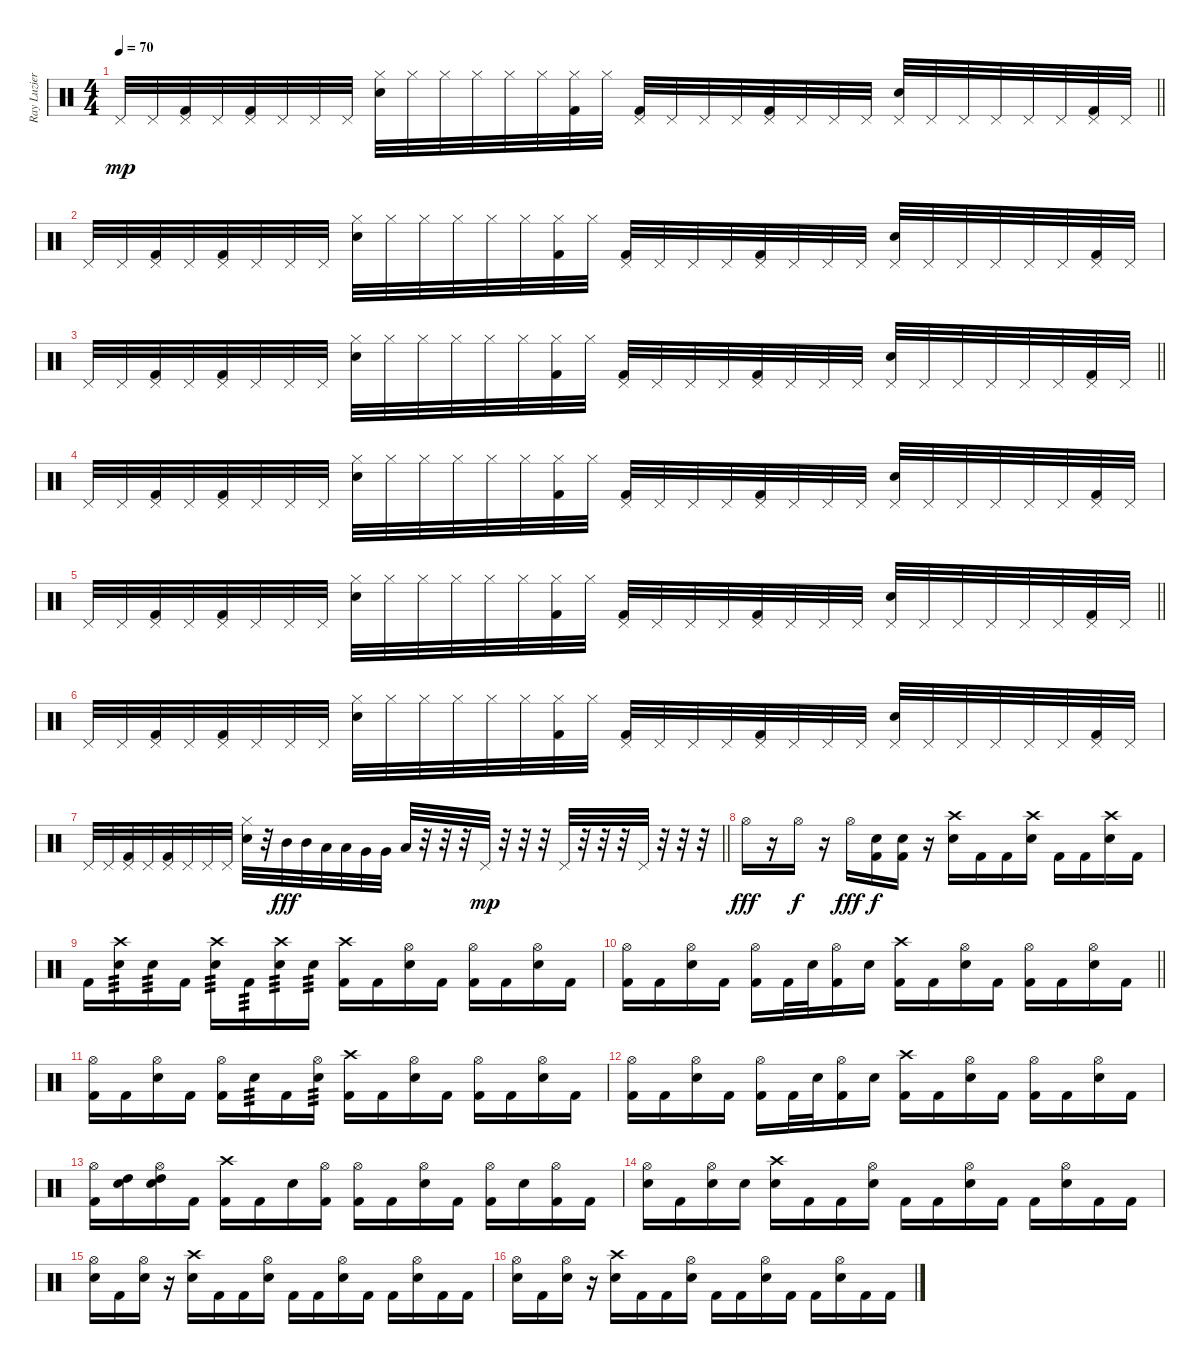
\track ("Ray Luzier (Drums)" "Ray Luzier") {instrument percussion}
\staff {score}
\articulation defaults
\ts (4 4)
\tempo 70
\clef neutral
\barLineRight lightlight
\ks c "Pedal Hi-Hat (hit)".32{dy mp} "Pedal Hi-Hat (hit)".32
("Pedal Hi-Hat (hit)" "Kick (hit) 2").32 "Pedal Hi-Hat (hit)".32 ("Pedal Hi-Hat (hit)" "Kick (hit) 2").32 "Pedal Hi-Hat (hit)".32 "Pedal Hi-Hat (hit)".32 "Pedal Hi-Hat (hit)".32 ("Hi-Hat (closed)" "Electric Snare (hit)").32 "Hi-Hat (closed)".32 "Hi-Hat (closed)".32 "Hi-Hat (closed)".32 "Hi-Hat (closed)".32 "Hi-Hat (closed)".32 ("Hi-Hat (closed)" "Kick (hit) 2").32 "Hi-Hat (closed)".32 ("Pedal Hi-Hat (hit)" "Kick (hit) 2").32 "Pedal Hi-Hat (hit)".32 "Pedal Hi-Hat (hit)".32 "Pedal Hi-Hat (hit)".32 ("Pedal Hi-Hat (hit)" "Kick (hit) 2").32 "Pedal Hi-Hat (hit)".32 "Pedal Hi-Hat (hit)".32 "Pedal Hi-Hat (hit)".32 ("Pedal Hi-Hat (hit)" "Electric Snare (hit)").32 "Pedal Hi-Hat (hit)".32 "Pedal Hi-Hat (hit)".32 "Pedal Hi-Hat (hit)".32 "Pedal Hi-Hat (hit)".32 "Pedal Hi-Hat (hit)".32 ("Pedal Hi-Hat (hit)" "Kick (hit) 2").32 "Pedal Hi-Hat (hit)".32 |
"Pedal Hi-Hat (hit)".32 "Pedal Hi-Hat (hit)".32 ("Pedal Hi-Hat (hit)" "Kick (hit) 2").32 "Pedal Hi-Hat (hit)".32 ("Pedal Hi-Hat (hit)" "Kick (hit) 2").32 "Pedal Hi-Hat (hit)".32 "Pedal Hi-Hat (hit)".32 "Pedal Hi-Hat (hit)".32 ("Hi-Hat (closed)" "Electric Snare (hit)").32 "Hi-Hat (closed)".32 "Hi-Hat (closed)".32 "Hi-Hat (closed)".32 "Hi-Hat (closed)".32 "Hi-Hat (closed)".32 ("Hi-Hat (closed)" "Kick (hit) 2").32 "Hi-Hat (closed)".32 ("Pedal Hi-Hat (hit)" "Kick (hit) 2").32 "Pedal Hi-Hat (hit)".32 "Pedal Hi-Hat (hit)".32 "Pedal Hi-Hat (hit)".32 ("Pedal Hi-Hat (hit)" "Kick (hit) 2").32 "Pedal Hi-Hat (hit)".32 "Pedal Hi-Hat (hit)".32 "Pedal Hi-Hat (hit)".32 ("Pedal Hi-Hat (hit)" "Electric Snare (hit)").32 "Pedal Hi-Hat (hit)".32 "Pedal Hi-Hat (hit)".32 "Pedal Hi-Hat (hit)".32 "Pedal Hi-Hat (hit)".32 "Pedal Hi-Hat (hit)".32 ("Pedal Hi-Hat (hit)" "Kick (hit) 2").32 "Pedal Hi-Hat (hit)".32 |
\barLineRight lightlight "Pedal Hi-Hat (hit)".32 "Pedal Hi-Hat (hit)".32
("Pedal Hi-Hat (hit)" "Kick (hit) 2").32 "Pedal Hi-Hat (hit)".32 ("Pedal Hi-Hat (hit)" "Kick (hit) 2").32 "Pedal Hi-Hat (hit)".32 "Pedal Hi-Hat (hit)".32 "Pedal Hi-Hat (hit)".32 ("Hi-Hat (closed)" "Electric Snare (hit)").32 "Hi-Hat (closed)".32 "Hi-Hat (closed)".32 "Hi-Hat (closed)".32 "Hi-Hat (closed)".32 "Hi-Hat (closed)".32 ("Hi-Hat (closed)" "Kick (hit) 2").32 "Hi-Hat (closed)".32 ("Pedal Hi-Hat (hit)" "Kick (hit) 2").32 "Pedal Hi-Hat (hit)".32 "Pedal Hi-Hat (hit)".32 "Pedal Hi-Hat (hit)".32 ("Pedal Hi-Hat (hit)" "Kick (hit) 2").32 "Pedal Hi-Hat (hit)".32 "Pedal Hi-Hat (hit)".32 "Pedal Hi-Hat (hit)".32 ("Pedal Hi-Hat (hit)" "Electric Snare (hit)").32 "Pedal Hi-Hat (hit)".32 "Pedal Hi-Hat (hit)".32 "Pedal Hi-Hat (hit)".32 "Pedal Hi-Hat (hit)".32 "Pedal Hi-Hat (hit)".32 ("Pedal Hi-Hat (hit)" "Kick (hit) 2").32 "Pedal Hi-Hat (hit)".32 |
"Pedal Hi-Hat (hit)".32 "Pedal Hi-Hat (hit)".32 ("Pedal Hi-Hat (hit)" "Kick (hit) 2").32 "Pedal Hi-Hat (hit)".32 ("Pedal Hi-Hat (hit)" "Kick (hit) 2").32 "Pedal Hi-Hat (hit)".32 "Pedal Hi-Hat (hit)".32 "Pedal Hi-Hat (hit)".32 ("Hi-Hat (closed)" "Electric Snare (hit)").32 "Hi-Hat (closed)".32 "Hi-Hat (closed)".32 "Hi-Hat (closed)".32 "Hi-Hat (closed)".32 "Hi-Hat (closed)".32 ("Hi-Hat (closed)" "Kick (hit) 2").32 "Hi-Hat (closed)".32 ("Pedal Hi-Hat (hit)" "Kick (hit) 2").32 "Pedal Hi-Hat (hit)".32 "Pedal Hi-Hat (hit)".32 "Pedal Hi-Hat (hit)".32 ("Pedal Hi-Hat (hit)" "Kick (hit) 2").32 "Pedal Hi-Hat (hit)".32 "Pedal Hi-Hat (hit)".32 "Pedal Hi-Hat (hit)".32 ("Pedal Hi-Hat (hit)" "Electric Snare (hit)").32 "Pedal Hi-Hat (hit)".32 "Pedal Hi-Hat (hit)".32 "Pedal Hi-Hat (hit)".32 "Pedal Hi-Hat (hit)".32 "Pedal Hi-Hat (hit)".32 ("Pedal Hi-Hat (hit)" "Kick (hit) 2").32 "Pedal Hi-Hat (hit)".32 |
\barLineRight lightlight "Pedal Hi-Hat (hit)".32 "Pedal Hi-Hat (hit)".32
("Pedal Hi-Hat (hit)" "Kick (hit) 2").32 "Pedal Hi-Hat (hit)".32 ("Pedal Hi-Hat (hit)" "Kick (hit) 2").32 "Pedal Hi-Hat (hit)".32 "Pedal Hi-Hat (hit)".32 "Pedal Hi-Hat (hit)".32 ("Hi-Hat (closed)" "Electric Snare (hit)").32 "Hi-Hat (closed)".32 "Hi-Hat (closed)".32 "Hi-Hat (closed)".32 "Hi-Hat (closed)".32 "Hi-Hat (closed)".32 ("Hi-Hat (closed)" "Kick (hit) 2").32 "Hi-Hat (closed)".32 ("Pedal Hi-Hat (hit)" "Kick (hit) 2").32 "Pedal Hi-Hat (hit)".32 "Pedal Hi-Hat (hit)".32 "Pedal Hi-Hat (hit)".32 ("Pedal Hi-Hat (hit)" "Kick (hit) 2").32 "Pedal Hi-Hat (hit)".32 "Pedal Hi-Hat (hit)".32 "Pedal Hi-Hat (hit)".32 ("Pedal Hi-Hat (hit)" "Electric Snare (hit)").32 "Pedal Hi-Hat (hit)".32 "Pedal Hi-Hat (hit)".32 "Pedal Hi-Hat (hit)".32 "Pedal Hi-Hat (hit)".32 "Pedal Hi-Hat (hit)".32 ("Pedal Hi-Hat (hit)" "Kick (hit) 2").32 "Pedal Hi-Hat (hit)".32 |
"Pedal Hi-Hat (hit)".32 "Pedal Hi-Hat (hit)".32 ("Pedal Hi-Hat (hit)" "Kick (hit) 2").32 "Pedal Hi-Hat (hit)".32 ("Pedal Hi-Hat (hit)" "Kick (hit) 2").32 "Pedal Hi-Hat (hit)".32 "Pedal Hi-Hat (hit)".32 "Pedal Hi-Hat (hit)".32 ("Hi-Hat (closed)" "Electric Snare (hit)").32 "Hi-Hat (closed)".32 "Hi-Hat (closed)".32 "Hi-Hat (closed)".32 "Hi-Hat (closed)".32 "Hi-Hat (closed)".32 ("Hi-Hat (closed)" "Kick (hit) 2").32 "Hi-Hat (closed)".32 ("Pedal Hi-Hat (hit)" "Kick (hit) 2").32 "Pedal Hi-Hat (hit)".32 "Pedal Hi-Hat (hit)".32 "Pedal Hi-Hat (hit)".32 ("Pedal Hi-Hat (hit)" "Kick (hit) 2").32 "Pedal Hi-Hat (hit)".32 "Pedal Hi-Hat (hit)".32 "Pedal Hi-Hat (hit)".32 ("Pedal Hi-Hat (hit)" "Electric Snare (hit)").32 "Pedal Hi-Hat (hit)".32 "Pedal Hi-Hat (hit)".32 "Pedal Hi-Hat (hit)".32 "Pedal Hi-Hat (hit)".32 "Pedal Hi-Hat (hit)".32 ("Pedal Hi-Hat (hit)" "Kick (hit) 2").32 "Pedal Hi-Hat (hit)".32 |
\barLineRight lightlight "Pedal Hi-Hat (hit)".32 "Pedal Hi-Hat (hit)".32
("Pedal Hi-Hat (hit)" "Kick (hit) 2").32 "Pedal Hi-Hat (hit)".32 ("Pedal Hi-Hat (hit)" "Kick (hit) 2").32 "Pedal Hi-Hat (hit)".32 "Pedal Hi-Hat (hit)".32 "Pedal Hi-Hat (hit)".32 ("Hi-Hat (closed)" "Electric Snare (hit)").32 r.32 "Mid Tom (hit)".32{dy fff} "Mid Tom (hit)".32 "Low Tom (hit)".32 "Low Tom (hit)".32 "Very Low Tom (hit)".32 "Very Low Tom (hit)".32 "Low Floor Tom (hit)".32 r.32 r.32 r.32 "Pedal Hi-Hat (hit)".32{dy mp} r.32 r.32 r.32 "Pedal Hi-Hat (hit)".32 r.32 r.32 r.32 "Pedal Hi-Hat (hit)".32 r.32 r.32 r.32 |
"Hi-Hat (open)".16{dy fff} r.16 "Hi-Hat (open)".16{dy f} r.16 "Hi-Hat (open)".16{dy fff} ("Electric Snare (hit)" "Kick (hit) 2").16{dy f} ("Electric Snare (hit)" "Kick (hit) 2").16 r.16 ("Crash high (hit)" "Electric Snare (hit)").16 "Kick (hit) 2".16 "Kick (hit) 2".16 ("Crash high (hit)" "Electric Snare (hit)").16 "Kick (hit) 2".16 "Kick (hit) 2".16 ("Crash high (hit)" "Electric Snare (hit)").16 "Kick (hit) 2".16 |
"Kick (hit) 2".16 ("Crash high (hit)" "Electric Snare (hit)").16{tp 3} "Electric Snare (hit)".16{tp 3} "Kick (hit) 2".16 ("Crash high (hit)" "Electric Snare (hit)").16{tp 3} "Kick (hit) 2".16{tp 3} ("Crash high (hit)" "Electric Snare (hit)").16{tp 3} "Electric Snare (hit)".16{tp 3} ("Crash high (hit)" "Kick (hit) 2").16 "Kick (hit) 2".16 ("Hi-Hat (open)" "Electric Snare (hit)").16 "Kick (hit) 2".16 ("Hi-Hat (open)" "Kick (hit) 2").16 "Kick (hit) 2".16 ("Hi-Hat (open)" "Electric Snare (hit)").16 "Kick (hit) 2".16 |
\barLineRight lightlight
("Hi-Hat (open)" "Kick (hit) 2").16 "Kick (hit) 2".16 ("Hi-Hat (open)" "Electric Snare (hit)").16 "Kick (hit) 2".16 ("Hi-Hat (open)" "Kick (hit) 2").16 "Kick (hit) 2".32 "Electric Snare (hit)".32 ("Hi-Hat (open)" "Kick (hit) 2").16 "Electric Snare (hit)".16 ("Crash high (hit)" "Kick (hit) 2").16 "Kick (hit) 2".16 ("Hi-Hat (open)" "Electric Snare (hit)").16 "Kick (hit) 2".16 ("Hi-Hat (open)" "Kick (hit) 2").16 "Kick (hit) 2".16 ("Hi-Hat (open)" "Electric Snare (hit)").16 "Kick (hit) 2".16 |
("Hi-Hat (open)" "Kick (hit) 2").16 "Kick (hit) 2".16 ("Hi-Hat (open)" "Electric Snare (hit)").16 "Kick (hit) 2".16 ("Hi-Hat (open)" "Kick (hit) 2").16 "Electric Snare (hit)".16{tp 3} "Kick (hit) 2".16 ("Hi-Hat (open)" "Electric Snare (hit)").16{tp 3} ("Crash high (hit)" "Kick (hit) 2").16 "Kick (hit) 2".16 ("Hi-Hat (open)" "Electric Snare (hit)").16 "Kick (hit) 2".16 ("Hi-Hat (open)" "Kick (hit) 2").16 "Kick (hit) 2".16 ("Hi-Hat (open)" "Electric Snare (hit)").16 "Kick (hit) 2".16 |
("Hi-Hat (open)" "Kick (hit) 2").16 "Kick (hit) 2".16 ("Hi-Hat (open)" "Electric Snare (hit)").16 "Kick (hit) 2".16 ("Hi-Hat (open)" "Kick (hit) 2").16 "Kick (hit) 2".32 "Electric Snare (hit)".32 ("Hi-Hat (open)" "Kick (hit) 2").16 "Electric Snare (hit)".16 ("Crash high (hit)" "Kick (hit) 2").16 "Kick (hit) 2".16 ("Hi-Hat (open)" "Electric Snare (hit)").16 "Kick (hit) 2".16 ("Hi-Hat (open)" "Kick (hit) 2").16 "Kick (hit) 2".16 ("Hi-Hat (open)" "Electric Snare (hit)").16 "Kick (hit) 2".16 |
("Hi-Hat (open)" "Kick (hit) 2").16 ("Electric Snare (hit)" "High Tom (hit)").16 ("Hi-Hat (open)" "Electric Snare (hit)" "High Tom (hit)").16 "Kick (hit) 2".16 ("Crash high (hit)" "Kick (hit) 2").16 "Kick (hit) 2".16 "Electric Snare (hit)".16 ("Hi-Hat (open)" "Kick (hit) 2").16 ("Hi-Hat (open)" "Kick (hit) 2").16 "Kick (hit) 2".16 ("Hi-Hat (open)" "Electric Snare (hit)").16 "Kick (hit) 2".16 ("Hi-Hat (open)" "Kick (hit) 2").16 "Electric Snare (hit)".16 ("Hi-Hat (open)" "Kick (hit) 2").16 "Kick (hit) 2".16 |
("Hi-Hat (open)" "Electric Snare (hit)").16 "Kick (hit) 2".16 ("Hi-Hat (open)" "Electric Snare (hit)").16 "Electric Snare (hit)".16 ("Crash high (hit)" "Electric Snare (hit)").16 "Kick (hit) 2".16 "Kick (hit) 2".16 ("Hi-Hat (open)" "Electric Snare (hit)").16 "Kick (hit) 2".16 "Kick (hit) 2".16 ("Hi-Hat (open)" "Electric Snare (hit)").16 "Kick (hit) 2".16 "Kick (hit) 2".16 ("Hi-Hat (open)" "Electric Snare (hit)").16 "Kick (hit) 2".16 "Kick (hit) 2".16 |
("Hi-Hat (open)" "Electric Snare (hit)").16 "Kick (hit) 2".16 ("Hi-Hat (open)" "Electric Snare (hit)").16 r.16 ("Crash high (hit)" "Electric Snare (hit)").16 "Kick (hit) 2".16 "Kick (hit) 2".16 ("Hi-Hat (open)" "Electric Snare (hit)").16 "Kick (hit) 2".16 "Kick (hit) 2".16 ("Hi-Hat (open)" "Electric Snare (hit)").16 "Kick (hit) 2".16 "Kick (hit) 2".16 ("Hi-Hat (open)" "Electric Snare (hit)").16 "Kick (hit) 2".16 "Kick (hit) 2".16 |
("Hi-Hat (open)" "Electric Snare (hit)").16 "Kick (hit) 2".16 ("Hi-Hat (open)" "Electric Snare (hit)").16 r.16 ("Crash high (hit)" "Electric Snare (hit)").16 "Kick (hit) 2".16 "Kick (hit) 2".16 ("Hi-Hat (open)" "Electric Snare (hit)").16 "Kick (hit) 2".16 "Kick (hit) 2".16 ("Hi-Hat (open)" "Electric Snare (hit)").16 "Kick (hit) 2".16 "Kick (hit) 2".16 ("Hi-Hat (open)" "Electric Snare (hit)").16 "Kick (hit) 2".16 "Kick (hit) 2".16
